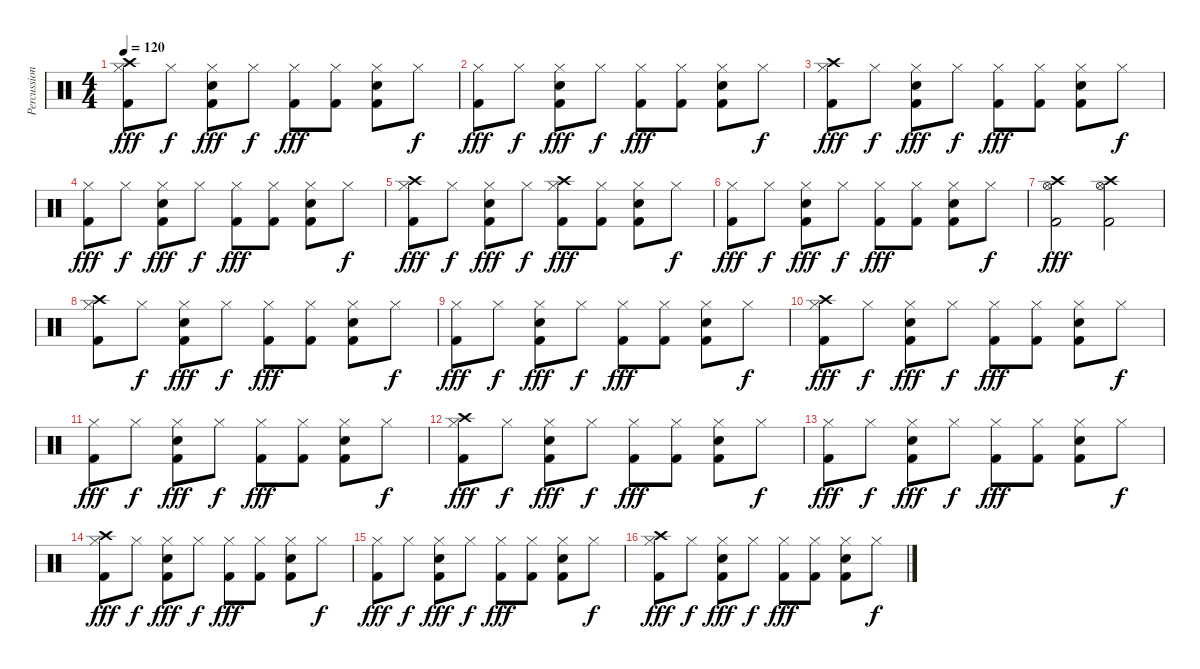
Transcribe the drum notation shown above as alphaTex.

\track ("Percussion: Steve Walchoz" "Percussion") {instrument percussion}
\staff {score}
\articulation defaults
\ts (4 4)
\tempo 120
\clef neutral
\ks c
("Crash high (hit)" "Hi-Hat (closed)" "Kick (hit) 2").8{dy fff} "Hi-Hat (closed)".8{dy f} ("Hi-Hat (closed)" "Snare (hit) 2" "Kick (hit) 2").8{dy fff} "Hi-Hat (closed)".8{dy f} ("Hi-Hat (closed)" "Kick (hit) 2").8{dy fff} ("Hi-Hat (closed)" "Kick (hit) 2").8 ("Hi-Hat (closed)" "Snare (hit) 2" "Kick (hit) 2").8 "Hi-Hat (closed)".8{dy f} |
("Hi-Hat (closed)" "Kick (hit) 2").8{dy fff} "Hi-Hat (closed)".8{dy f} ("Hi-Hat (closed)" "Snare (hit) 2" "Kick (hit) 2").8{dy fff} "Hi-Hat (closed)".8{dy f} ("Hi-Hat (closed)" "Kick (hit) 2").8{dy fff} ("Hi-Hat (closed)" "Kick (hit) 2").8 ("Hi-Hat (closed)" "Snare (hit) 2" "Kick (hit) 2").8 "Hi-Hat (closed)".8{dy f} |
("Crash high (hit)" "Hi-Hat (closed)" "Kick (hit) 2").8{dy fff} "Hi-Hat (closed)".8{dy f} ("Hi-Hat (closed)" "Snare (hit) 2" "Kick (hit) 2").8{dy fff} "Hi-Hat (closed)".8{dy f} ("Hi-Hat (closed)" "Kick (hit) 2").8{dy fff} ("Hi-Hat (closed)" "Kick (hit) 2").8 ("Hi-Hat (closed)" "Snare (hit) 2" "Kick (hit) 2").8 "Hi-Hat (closed)".8{dy f} |
("Hi-Hat (closed)" "Kick (hit) 2").8{dy fff} "Hi-Hat (closed)".8{dy f} ("Hi-Hat (closed)" "Snare (hit) 2" "Kick (hit) 2").8{dy fff} "Hi-Hat (closed)".8{dy f} ("Hi-Hat (closed)" "Kick (hit) 2").8{dy fff} ("Hi-Hat (closed)" "Kick (hit) 2").8 ("Hi-Hat (closed)" "Snare (hit) 2" "Kick (hit) 2").8 "Hi-Hat (closed)".8{dy f} |
("Crash high (hit)" "Hi-Hat (closed)" "Kick (hit) 2").8{dy fff} "Hi-Hat (closed)".8{dy f} ("Hi-Hat (closed)" "Snare (hit) 2" "Kick (hit) 2").8{dy fff} "Hi-Hat (closed)".8{dy f} ("Crash high (hit)" "Hi-Hat (closed)" "Kick (hit) 2").8{dy fff} ("Hi-Hat (closed)" "Kick (hit) 2").8 ("Hi-Hat (closed)" "Snare (hit) 2" "Kick (hit) 2").8 "Hi-Hat (closed)".8{dy f} |
("Hi-Hat (closed)" "Kick (hit) 2").8{dy fff} "Hi-Hat (closed)".8{dy f} ("Hi-Hat (closed)" "Snare (hit) 2" "Kick (hit) 2").8{dy fff} "Hi-Hat (closed)".8{dy f} ("Hi-Hat (closed)" "Kick (hit) 2").8{dy fff} ("Hi-Hat (closed)" "Kick (hit) 2").8 ("Hi-Hat (closed)" "Snare (hit) 2" "Kick (hit) 2").8 "Hi-Hat (closed)".8{dy f} |
("Crash high (hit)" "Hi-Hat (open)" "Kick (hit) 2").2{dy fff} ("Crash high (hit)" "Hi-Hat (open)" "Kick (hit) 2").2 |
("Crash high (hit)" "Hi-Hat (closed)" "Kick (hit) 2").8 "Hi-Hat (closed)".8{dy f} ("Hi-Hat (closed)" "Snare (hit) 2" "Kick (hit) 2").8{dy fff} "Hi-Hat (closed)".8{dy f} ("Hi-Hat (closed)" "Kick (hit) 2").8{dy fff} ("Hi-Hat (closed)" "Kick (hit) 2").8 ("Hi-Hat (closed)" "Snare (hit) 2" "Kick (hit) 2").8 "Hi-Hat (closed)".8{dy f} |
("Hi-Hat (closed)" "Kick (hit) 2").8{dy fff} "Hi-Hat (closed)".8{dy f} ("Hi-Hat (closed)" "Snare (hit) 2" "Kick (hit) 2").8{dy fff} "Hi-Hat (closed)".8{dy f} ("Hi-Hat (closed)" "Kick (hit) 2").8{dy fff} ("Hi-Hat (closed)" "Kick (hit) 2").8 ("Hi-Hat (closed)" "Snare (hit) 2" "Kick (hit) 2").8 "Hi-Hat (closed)".8{dy f} |
("Crash high (hit)" "Hi-Hat (closed)" "Kick (hit) 2").8{dy fff} "Hi-Hat (closed)".8{dy f} ("Hi-Hat (closed)" "Snare (hit) 2" "Kick (hit) 2").8{dy fff} "Hi-Hat (closed)".8{dy f} ("Hi-Hat (closed)" "Kick (hit) 2").8{dy fff} ("Hi-Hat (closed)" "Kick (hit) 2").8 ("Hi-Hat (closed)" "Snare (hit) 2" "Kick (hit) 2").8 "Hi-Hat (closed)".8{dy f} |
("Hi-Hat (closed)" "Kick (hit) 2").8{dy fff} "Hi-Hat (closed)".8{dy f} ("Hi-Hat (closed)" "Snare (hit) 2" "Kick (hit) 2").8{dy fff} "Hi-Hat (closed)".8{dy f} ("Hi-Hat (closed)" "Kick (hit) 2").8{dy fff} ("Hi-Hat (closed)" "Kick (hit) 2").8 ("Hi-Hat (closed)" "Snare (hit) 2" "Kick (hit) 2").8 "Hi-Hat (closed)".8{dy f} |
("Crash high (hit)" "Hi-Hat (closed)" "Kick (hit) 2").8{dy fff} "Hi-Hat (closed)".8{dy f} ("Hi-Hat (closed)" "Snare (hit) 2" "Kick (hit) 2").8{dy fff} "Hi-Hat (closed)".8{dy f} ("Hi-Hat (closed)" "Kick (hit) 2").8{dy fff} ("Hi-Hat (closed)" "Kick (hit) 2").8 ("Hi-Hat (closed)" "Snare (hit) 2" "Kick (hit) 2").8 "Hi-Hat (closed)".8{dy f} |
("Hi-Hat (closed)" "Kick (hit) 2").8{dy fff} "Hi-Hat (closed)".8{dy f} ("Hi-Hat (closed)" "Snare (hit) 2" "Kick (hit) 2").8{dy fff} "Hi-Hat (closed)".8{dy f} ("Hi-Hat (closed)" "Kick (hit) 2").8{dy fff} ("Hi-Hat (closed)" "Kick (hit) 2").8 ("Hi-Hat (closed)" "Snare (hit) 2" "Kick (hit) 2").8 "Hi-Hat (closed)".8{dy f} |
("Crash high (hit)" "Hi-Hat (closed)" "Kick (hit) 2").8{dy fff} "Hi-Hat (closed)".8{dy f} ("Hi-Hat (closed)" "Snare (hit) 2" "Kick (hit) 2").8{dy fff} "Hi-Hat (closed)".8{dy f} ("Hi-Hat (closed)" "Kick (hit) 2").8{dy fff} ("Hi-Hat (closed)" "Kick (hit) 2").8 ("Hi-Hat (closed)" "Snare (hit) 2" "Kick (hit) 2").8 "Hi-Hat (closed)".8{dy f} |
("Hi-Hat (closed)" "Kick (hit) 2").8{dy fff} "Hi-Hat (closed)".8{dy f} ("Hi-Hat (closed)" "Snare (hit) 2" "Kick (hit) 2").8{dy fff} "Hi-Hat (closed)".8{dy f} ("Hi-Hat (closed)" "Kick (hit) 2").8{dy fff} ("Hi-Hat (closed)" "Kick (hit) 2").8 ("Hi-Hat (closed)" "Snare (hit) 2" "Kick (hit) 2").8 "Hi-Hat (closed)".8{dy f} |
("Crash high (hit)" "Hi-Hat (closed)" "Kick (hit) 2").8{dy fff} "Hi-Hat (closed)".8{dy f} ("Hi-Hat (closed)" "Snare (hit) 2" "Kick (hit) 2").8{dy fff} "Hi-Hat (closed)".8{dy f} ("Hi-Hat (closed)" "Kick (hit) 2").8{dy fff} ("Hi-Hat (closed)" "Kick (hit) 2").8 ("Hi-Hat (closed)" "Snare (hit) 2" "Kick (hit) 2").8 "Hi-Hat (closed)".8{dy f}
